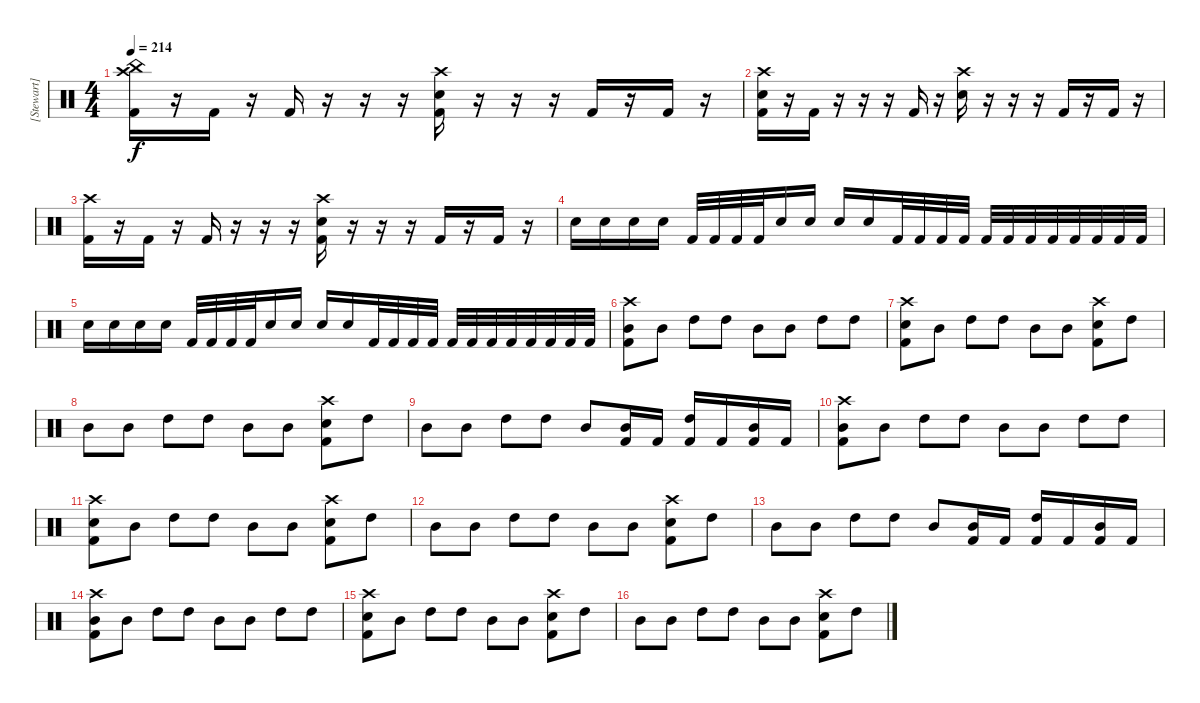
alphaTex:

\track ("[Stewart]" "[Stewart]") {instrument percussion}
\staff {score}
\articulation defaults
\ts (4 4)
\tempo 214
\clef neutral
\ks c
("China (hit)" "Crash high (hit)" "Kick (hit) 2").16{dy f} r.16 "Kick (hit) 2".16 r.16 "Kick (hit) 2".16 r.16 r.16 r.16 ("Crash high (hit)" "Electric Snare (hit)" "Kick (hit) 2").16 r.16 r.16 r.16 "Kick (hit) 2".16 r.16 "Kick (hit) 2".16 r.16 |
("Crash high (hit)" "Electric Snare (hit)" "Kick (hit) 2").16 r.16 "Kick (hit) 2".16 r.16 r.16 r.16 "Kick (hit) 2".16 r.16 ("Crash high (hit)" "Electric Snare (hit)").16 r.16 r.16 r.16 "Kick (hit) 2".16 r.16 "Kick (hit) 2".16 r.16 |
("Crash high (hit)" "Kick (hit) 2").16 r.16 "Kick (hit) 2".16 r.16 "Kick (hit) 2".16 r.16 r.16 r.16 ("Crash high (hit)" "Electric Snare (hit)" "Kick (hit) 2").16 r.16 r.16 r.16 "Kick (hit) 2".16 r.16 "Kick (hit) 2".16 r.16 |
"Electric Snare (hit)".16 "Electric Snare (hit)".16 "Electric Snare (hit)".16 "Electric Snare (hit)".16 "Kick (hit) 2".32 "Kick (hit) 2".32 "Kick (hit) 2".32 "Kick (hit) 2".32 "Electric Snare (hit)".16 "Electric Snare (hit)".16 "Electric Snare (hit)".16 "Electric Snare (hit)".16 "Kick (hit) 2".32 "Kick (hit) 2".32 "Kick (hit) 2".32 "Kick (hit) 2".32 "Kick (hit) 2".32 "Kick (hit) 2".32 "Kick (hit) 2".32 "Kick (hit) 2".32 "Kick (hit) 2".32 "Kick (hit) 2".32 "Kick (hit) 2".32 "Kick (hit) 2".32 |
"Electric Snare (hit)".16 "Electric Snare (hit)".16 "Electric Snare (hit)".16 "Electric Snare (hit)".16 "Kick (hit) 2".32 "Kick (hit) 2".32 "Kick (hit) 2".32 "Kick (hit) 2".32 "Electric Snare (hit)".16 "Electric Snare (hit)".16 "Electric Snare (hit)".16 "Electric Snare (hit)".16 "Kick (hit) 2".32 "Kick (hit) 2".32 "Kick (hit) 2".32 "Kick (hit) 2".32 "Kick (hit) 2".32 "Kick (hit) 2".32 "Kick (hit) 2".32 "Kick (hit) 2".32 "Kick (hit) 2".32 "Kick (hit) 2".32 "Kick (hit) 2".32 "Kick (hit) 2".32 |
("Crash high (hit)" "Mid Tom (hit)" "Kick (hit) 2").8 "Mid Tom (hit)".8 "High Tom (hit)".8 "High Tom (hit)".8 "Mid Tom (hit)".8 "Mid Tom (hit)".8 "High Tom (hit)".8 "High Tom (hit)".8 |
("Crash high (hit)" "Electric Snare (hit)" "Kick (hit) 2").8 "Mid Tom (hit)".8 "High Tom (hit)".8 "High Tom (hit)".8 "Mid Tom (hit)".8 "Mid Tom (hit)".8 ("Crash high (hit)" "Electric Snare (hit)" "Kick (hit) 2").8 "High Tom (hit)".8 |
"Mid Tom (hit)".8 "Mid Tom (hit)".8 "High Tom (hit)".8 "High Tom (hit)".8 "Mid Tom (hit)".8 "Mid Tom (hit)".8 ("Crash high (hit)" "Electric Snare (hit)" "Kick (hit) 2").8 "High Tom (hit)".8 |
"Mid Tom (hit)".8 "Mid Tom (hit)".8 "High Tom (hit)".8 "High Tom (hit)".8 "Mid Tom (hit)".8 ("Mid Tom (hit)" "Kick (hit) 2").16 "Kick (hit) 2".16 ("High Tom (hit)" "Kick (hit) 2").16 "Kick (hit) 2".16 ("Mid Tom (hit)" "Kick (hit) 2").16 "Kick (hit) 2".16 |
("Crash high (hit)" "Mid Tom (hit)" "Kick (hit) 2").8 "Mid Tom (hit)".8 "High Tom (hit)".8 "High Tom (hit)".8 "Mid Tom (hit)".8 "Mid Tom (hit)".8 "High Tom (hit)".8 "High Tom (hit)".8 |
("Crash high (hit)" "Electric Snare (hit)" "Kick (hit) 2").8 "Mid Tom (hit)".8 "High Tom (hit)".8 "High Tom (hit)".8 "Mid Tom (hit)".8 "Mid Tom (hit)".8 ("Crash high (hit)" "Electric Snare (hit)" "Kick (hit) 2").8 "High Tom (hit)".8 |
"Mid Tom (hit)".8 "Mid Tom (hit)".8 "High Tom (hit)".8 "High Tom (hit)".8 "Mid Tom (hit)".8 "Mid Tom (hit)".8 ("Crash high (hit)" "Electric Snare (hit)" "Kick (hit) 2").8 "High Tom (hit)".8 |
"Mid Tom (hit)".8 "Mid Tom (hit)".8 "High Tom (hit)".8 "High Tom (hit)".8 "Mid Tom (hit)".8 ("Mid Tom (hit)" "Kick (hit) 2").16 "Kick (hit) 2".16 ("High Tom (hit)" "Kick (hit) 2").16 "Kick (hit) 2".16 ("Mid Tom (hit)" "Kick (hit) 2").16 "Kick (hit) 2".16 |
("Crash high (hit)" "Mid Tom (hit)" "Kick (hit) 2").8 "Mid Tom (hit)".8 "High Tom (hit)".8 "High Tom (hit)".8 "Mid Tom (hit)".8 "Mid Tom (hit)".8 "High Tom (hit)".8 "High Tom (hit)".8 |
("Crash high (hit)" "Electric Snare (hit)" "Kick (hit) 2").8 "Mid Tom (hit)".8 "High Tom (hit)".8 "High Tom (hit)".8 "Mid Tom (hit)".8 "Mid Tom (hit)".8 ("Crash high (hit)" "Electric Snare (hit)" "Kick (hit) 2").8 "High Tom (hit)".8 |
"Mid Tom (hit)".8 "Mid Tom (hit)".8 "High Tom (hit)".8 "High Tom (hit)".8 "Mid Tom (hit)".8 "Mid Tom (hit)".8 ("Crash high (hit)" "Electric Snare (hit)" "Kick (hit) 2").8 "High Tom (hit)".8
